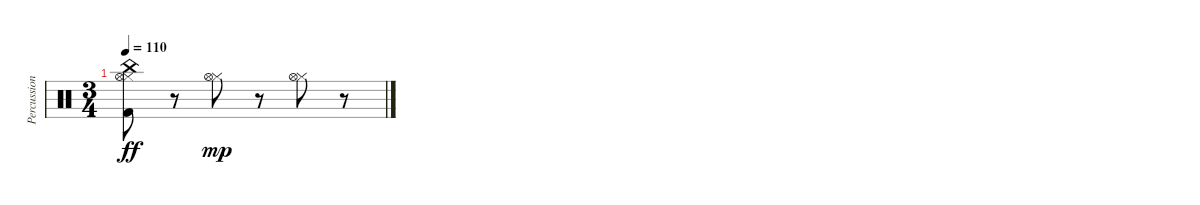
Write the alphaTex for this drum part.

\track ("Percussion" "Percussion") {instrument percussion}
\staff {score}
\articulation defaults
\ts (3 4)
\tempo 110
\clef neutral
\ks c
("China (hit)" "Hi-Hat (closed)" "Hi-Hat (open)" "Kick (hit) 2").8{dy ff} r.8 ("Hi-Hat (closed)" "Hi-Hat (open)").8{dy mp} r.8 ("Hi-Hat (closed)" "Hi-Hat (open)").8 r.8
